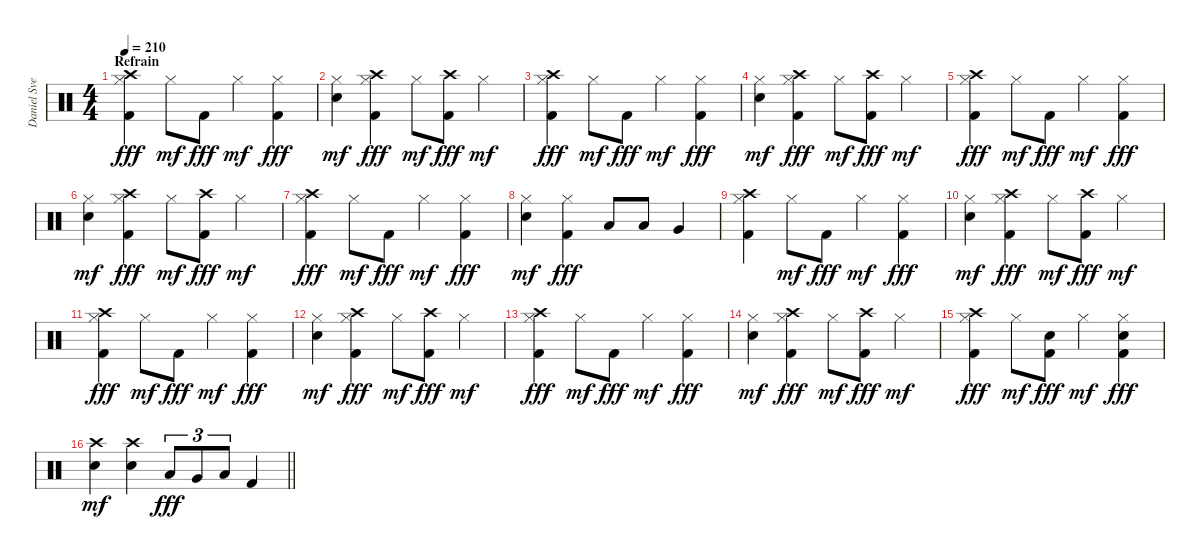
\track ("Daniel Svensson" "Daniel Sve") {instrument percussion}
\staff {score}
\articulation defaults
\ts (4 4)
\section ("" "Refrain")
\tempo 210
\clef neutral
\ks c
("Crash high (hit)" "Hi-Hat (closed)" "Kick (hit) 2").4{dy fff} "Hi-Hat (closed)".8{dy mf} "Kick (hit) 2".8{dy fff} "Hi-Hat (closed)".4{dy mf} ("Hi-Hat (closed)" "Kick (hit) 2").4{dy fff} |
("Hi-Hat (closed)" "Electric Snare (hit)").4{dy mf} ("Crash high (hit)" "Hi-Hat (closed)" "Kick (hit) 2").4{dy fff} "Hi-Hat (closed)".8{dy mf} ("Crash high (hit)" "Kick (hit) 2").8{dy fff} "Hi-Hat (closed)".4{dy mf} |
("Crash high (hit)" "Hi-Hat (closed)" "Kick (hit) 2").4{dy fff} "Hi-Hat (closed)".8{dy mf} "Kick (hit) 2".8{dy fff} "Hi-Hat (closed)".4{dy mf} ("Hi-Hat (closed)" "Kick (hit) 2").4{dy fff} |
("Hi-Hat (closed)" "Electric Snare (hit)").4{dy mf} ("Crash high (hit)" "Hi-Hat (closed)" "Kick (hit) 2").4{dy fff} "Hi-Hat (closed)".8{dy mf} ("Crash high (hit)" "Kick (hit) 2").8{dy fff} "Hi-Hat (closed)".4{dy mf} |
("Crash high (hit)" "Hi-Hat (closed)" "Kick (hit) 2").4{dy fff} "Hi-Hat (closed)".8{dy mf} "Kick (hit) 2".8{dy fff} "Hi-Hat (closed)".4{dy mf} ("Hi-Hat (closed)" "Kick (hit) 2").4{dy fff} |
("Hi-Hat (closed)" "Electric Snare (hit)").4{dy mf} ("Crash high (hit)" "Hi-Hat (closed)" "Kick (hit) 2").4{dy fff} "Hi-Hat (closed)".8{dy mf} ("Crash high (hit)" "Kick (hit) 2").8{dy fff} "Hi-Hat (closed)".4{dy mf} |
("Crash high (hit)" "Hi-Hat (closed)" "Kick (hit) 2").4{dy fff} "Hi-Hat (closed)".8{dy mf} "Kick (hit) 2".8{dy fff} "Hi-Hat (closed)".4{dy mf} ("Hi-Hat (closed)" "Kick (hit) 2").4{dy fff} |
("Hi-Hat (closed)" "Electric Snare (hit)").4{dy mf} ("Hi-Hat (closed)" "Kick (hit) 2").4{dy fff} "Low Tom (hit)".8 "Low Tom (hit)".8 "Very Low Tom (hit)".4 |
("Crash high (hit)" "Hi-Hat (closed)" "Kick (hit) 2").4 "Hi-Hat (closed)".8{dy mf} "Kick (hit) 2".8{dy fff} "Hi-Hat (closed)".4{dy mf} ("Hi-Hat (closed)" "Kick (hit) 2").4{dy fff} |
("Hi-Hat (closed)" "Electric Snare (hit)").4{dy mf} ("Crash high (hit)" "Hi-Hat (closed)" "Kick (hit) 2").4{dy fff} "Hi-Hat (closed)".8{dy mf} ("Crash high (hit)" "Kick (hit) 2").8{dy fff} "Hi-Hat (closed)".4{dy mf} |
("Crash high (hit)" "Hi-Hat (closed)" "Kick (hit) 2").4{dy fff} "Hi-Hat (closed)".8{dy mf} "Kick (hit) 2".8{dy fff} "Hi-Hat (closed)".4{dy mf} ("Hi-Hat (closed)" "Kick (hit) 2").4{dy fff} |
("Hi-Hat (closed)" "Electric Snare (hit)").4{dy mf} ("Crash high (hit)" "Hi-Hat (closed)" "Kick (hit) 2").4{dy fff} "Hi-Hat (closed)".8{dy mf} ("Crash high (hit)" "Kick (hit) 2").8{dy fff} "Hi-Hat (closed)".4{dy mf} |
("Crash high (hit)" "Hi-Hat (closed)" "Kick (hit) 2").4{dy fff} "Hi-Hat (closed)".8{dy mf} "Kick (hit) 2".8{dy fff} "Hi-Hat (closed)".4{dy mf} ("Hi-Hat (closed)" "Kick (hit) 2").4{dy fff} |
("Hi-Hat (closed)" "Electric Snare (hit)").4{dy mf} ("Crash high (hit)" "Hi-Hat (closed)" "Kick (hit) 2").4{dy fff} "Hi-Hat (closed)".8{dy mf} ("Crash high (hit)" "Kick (hit) 2").8{dy fff} "Hi-Hat (closed)".4{dy mf} |
("Crash high (hit)" "Hi-Hat (closed)" "Kick (hit) 2").4{dy fff} "Hi-Hat (closed)".8{dy mf} ("Electric Snare (hit)" "Kick (hit) 2").8{dy fff} "Hi-Hat (closed)".4{dy mf} ("Hi-Hat (closed)" "Electric Snare (hit)" "Kick (hit) 2").4{dy fff} |
\barLineRight lightlight
("Crash high (hit)" "Electric Snare (hit)").4{dy mf} ("Crash high (hit)" "Electric Snare (hit)").4 "Low Tom (hit)".8{tu (3 2) dy fff} "Very Low Tom (hit)".8{tu (3 2)} "Low Floor Tom (hit)".8{tu (3 2)} "Kick (hit) 2".4
